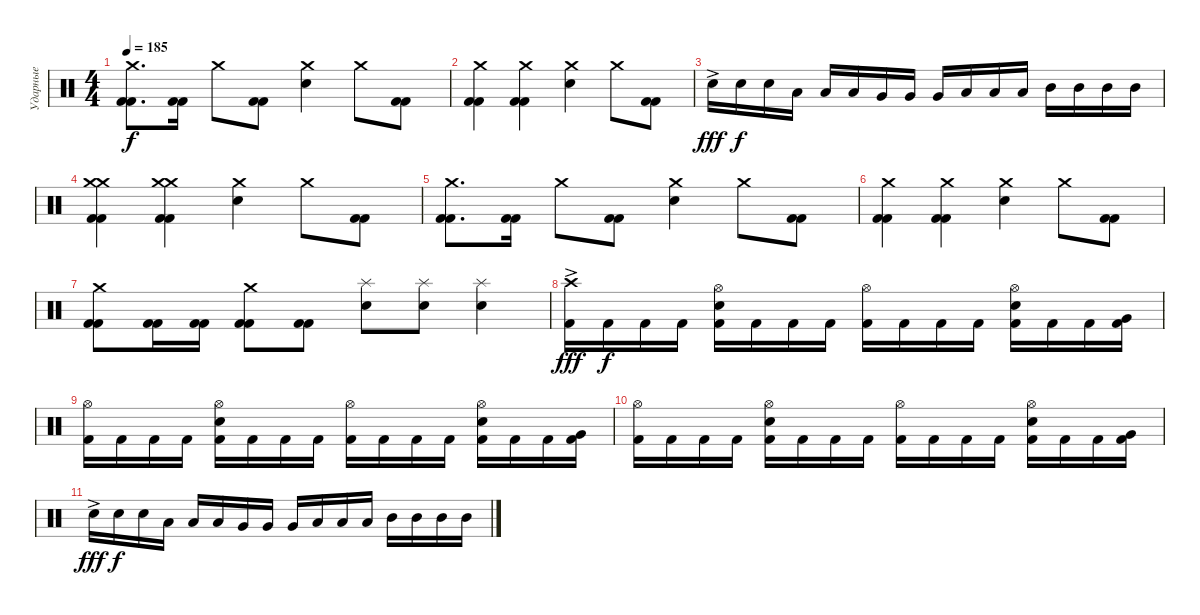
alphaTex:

\track ("Ударные" "Ударные") {instrument percussion}
\staff {score}
\articulation defaults
\ts (4 4)
\tempo 185
\clef neutral
\ks c
("Crash medium (hit)" "Kick (hit) 2" "Kick (hit) 2").8{d dy f} ("Kick (hit) 2" "Kick (hit) 2").16 "Crash medium (hit)".8 ("Kick (hit) 2" "Kick (hit) 2").8 ("Crash medium (hit)" "Electric Snare (hit)").4 "Crash medium (hit)".8 ("Kick (hit) 2" "Kick (hit) 2").8 |
("Crash medium (hit)" "Kick (hit) 2" "Kick (hit) 2").4 ("Crash medium (hit)" "Kick (hit) 2" "Kick (hit) 2").4 ("Crash medium (hit)" "Electric Snare (hit)").4 "Crash medium (hit)".8 ("Kick (hit) 2" "Kick (hit) 2").8 |
"Electric Snare (hit)"{ac}.16{dy fff} "Electric Snare (hit)".16{dy f} "Electric Snare (hit)".16 "Low Floor Tom (hit)".16 "Low Floor Tom (hit)".16 "Low Floor Tom (hit)".16 "Very Low Tom (hit)".16 "Very Low Tom (hit)".16 "Very Low Tom (hit)".16 "Low Tom (hit)".16 "Low Tom (hit)".16 "Low Tom (hit)".16 "Mid Tom (hit)".16 "Mid Tom (hit)".16 "Mid Tom (hit)".16 "Mid Tom (hit)".16 |
("Crash medium (hit)" "Crash medium (hit)" "Kick (hit) 2" "Kick (hit) 2").4 ("Crash medium (hit)" "Crash medium (hit)" "Kick (hit) 2" "Kick (hit) 2").4 ("Crash medium (hit)" "Electric Snare (hit)").4 "Crash medium (hit)".8 ("Kick (hit) 2" "Kick (hit) 2").8 |
("Crash medium (hit)" "Kick (hit) 2" "Kick (hit) 2").8{d} ("Kick (hit) 2" "Kick (hit) 2").16 "Crash medium (hit)".8 ("Kick (hit) 2" "Kick (hit) 2").8 ("Crash medium (hit)" "Electric Snare (hit)").4 "Crash medium (hit)".8 ("Kick (hit) 2" "Kick (hit) 2").8 |
("Crash medium (hit)" "Kick (hit) 2" "Kick (hit) 2").4 ("Crash medium (hit)" "Kick (hit) 2" "Kick (hit) 2").4 ("Crash medium (hit)" "Electric Snare (hit)").4 "Crash medium (hit)".8 ("Kick (hit) 2" "Kick (hit) 2").8 |
("Crash medium (hit)" "Kick (hit) 2" "Kick (hit) 2").8 ("Kick (hit) 2" "Kick (hit) 2").16 ("Kick (hit) 2" "Kick (hit) 2").16 ("Crash medium (hit)" "Kick (hit) 2" "Kick (hit) 2").8 ("Kick (hit) 2" "Kick (hit) 2").8 ("Splash (hit)" "Electric Snare (hit)").8 ("Splash (hit)" "Electric Snare (hit)").8 ("Splash (hit)" "Electric Snare (hit)").4 |
("Crash high (hit)"{ac} "Kick (hit) 2").16{dy fff} "Kick (hit) 2".16{dy f} "Kick (hit) 2".16 "Kick (hit) 2".16 ("Hi-Hat (open)" "Electric Snare (hit)" "Kick (hit) 2").16 "Kick (hit) 2".16 "Kick (hit) 2".16 "Kick (hit) 2".16 ("Hi-Hat (open)" "Kick (hit) 2").16 "Kick (hit) 2".16 "Kick (hit) 2".16 "Kick (hit) 2".16 ("Hi-Hat (open)" "Electric Snare (hit)" "Kick (hit) 2").16 "Kick (hit) 2".16 "Kick (hit) 2".16 ("Very Low Tom (hit)" "Kick (hit) 2").16 |
("Hi-Hat (open)" "Kick (hit) 2").16 "Kick (hit) 2".16 "Kick (hit) 2".16 "Kick (hit) 2".16 ("Hi-Hat (open)" "Electric Snare (hit)" "Kick (hit) 2").16 "Kick (hit) 2".16 "Kick (hit) 2".16 "Kick (hit) 2".16 ("Hi-Hat (open)" "Kick (hit) 2").16 "Kick (hit) 2".16 "Kick (hit) 2".16 "Kick (hit) 2".16 ("Hi-Hat (open)" "Electric Snare (hit)" "Kick (hit) 2").16 "Kick (hit) 2".16 "Kick (hit) 2".16 ("Very Low Tom (hit)" "Kick (hit) 2").16 |
("Hi-Hat (open)" "Kick (hit) 2").16 "Kick (hit) 2".16 "Kick (hit) 2".16 "Kick (hit) 2".16 ("Hi-Hat (open)" "Electric Snare (hit)" "Kick (hit) 2").16 "Kick (hit) 2".16 "Kick (hit) 2".16 "Kick (hit) 2".16 ("Hi-Hat (open)" "Kick (hit) 2").16 "Kick (hit) 2".16 "Kick (hit) 2".16 "Kick (hit) 2".16 ("Hi-Hat (open)" "Electric Snare (hit)" "Kick (hit) 2").16 "Kick (hit) 2".16 "Kick (hit) 2".16 ("Very Low Tom (hit)" "Kick (hit) 2").16 |
"Electric Snare (hit)"{ac}.16{dy fff} "Electric Snare (hit)".16{dy f} "Electric Snare (hit)".16 "Low Floor Tom (hit)".16 "Low Floor Tom (hit)".16 "Low Floor Tom (hit)".16 "Very Low Tom (hit)".16 "Very Low Tom (hit)".16 "Very Low Tom (hit)".16 "Low Tom (hit)".16 "Low Tom (hit)".16 "Low Tom (hit)".16 "Mid Tom (hit)".16 "Mid Tom (hit)".16 "Mid Tom (hit)".16 "Mid Tom (hit)".16
